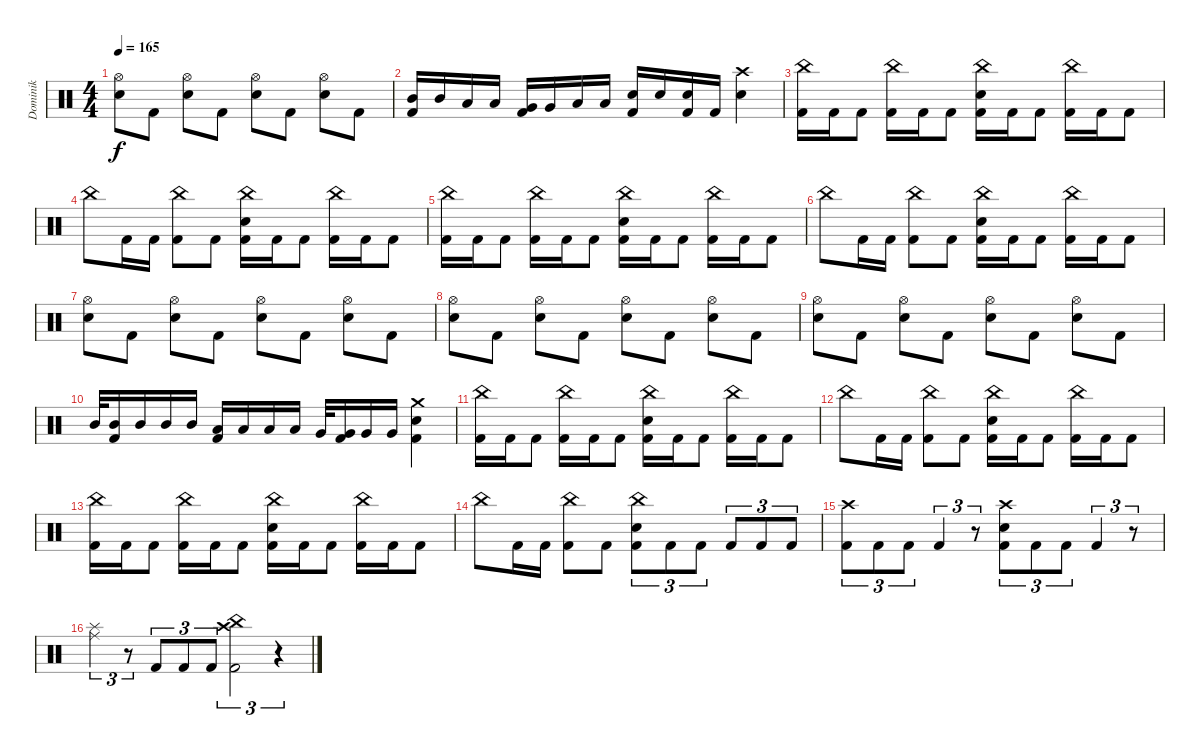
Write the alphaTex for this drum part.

\track ("Dominik" "Dominik") {instrument percussion}
\staff {score}
\articulation defaults
\ts (4 4)
\tempo 165
\clef neutral
\ks c
("Hi-Hat (open)" "Electric Snare (hit)").8{dy f} "Kick (hit) 2".8 ("Hi-Hat (open)" "Electric Snare (hit)").8 "Kick (hit) 2".8 ("Hi-Hat (open)" "Electric Snare (hit)").8 "Kick (hit) 2".8 ("Hi-Hat (open)" "Electric Snare (hit)").8 "Kick (hit) 2".8 |
("Mid Tom (hit)" "Kick (hit) 2").16 "Mid Tom (hit)".16 "Low Tom (hit)".16 "Low Tom (hit)".16 ("Very Low Tom (hit)" "Kick (hit) 2").16 "Very Low Tom (hit)".16 "Low Floor Tom (hit)".16 "Low Floor Tom (hit)".16 ("Electric Snare (hit)" "Kick (hit) 2").16 "Electric Snare (hit)".16 ("Electric Snare (hit)" "Kick (hit) 2").16 "Kick (hit) 2".16 ("Crash high (hit)" "Electric Snare (hit)").4 |
("China (hit)" "Kick (hit) 2").16 "Kick (hit) 2".16 "Kick (hit) 2".8 ("China (hit)" "Kick (hit) 2").16 "Kick (hit) 2".16 "Kick (hit) 2".8 ("China (hit)" "Electric Snare (hit)" "Kick (hit) 2").16 "Kick (hit) 2".16 "Kick (hit) 2".8 ("China (hit)" "Kick (hit) 2").16 "Kick (hit) 2".16 "Kick (hit) 2".8 |
"China (hit)".8 "Kick (hit) 2".16 "Kick (hit) 2".16 ("China (hit)" "Kick (hit) 2").8 "Kick (hit) 2".8 ("China (hit)" "Electric Snare (hit)" "Kick (hit) 2").16 "Kick (hit) 2".16 "Kick (hit) 2".8 ("China (hit)" "Kick (hit) 2").16 "Kick (hit) 2".16 "Kick (hit) 2".8 |
("China (hit)" "Kick (hit) 2").16 "Kick (hit) 2".16 "Kick (hit) 2".8 ("China (hit)" "Kick (hit) 2").16 "Kick (hit) 2".16 "Kick (hit) 2".8 ("China (hit)" "Electric Snare (hit)" "Kick (hit) 2").16 "Kick (hit) 2".16 "Kick (hit) 2".8 ("China (hit)" "Kick (hit) 2").16 "Kick (hit) 2".16 "Kick (hit) 2".8 |
"China (hit)".8 "Kick (hit) 2".16 "Kick (hit) 2".16 ("China (hit)" "Kick (hit) 2").8 "Kick (hit) 2".8 ("China (hit)" "Electric Snare (hit)" "Kick (hit) 2").16 "Kick (hit) 2".16 "Kick (hit) 2".8 ("China (hit)" "Kick (hit) 2").16 "Kick (hit) 2".16 "Kick (hit) 2".8 |
("Hi-Hat (open)" "Electric Snare (hit)").8 "Kick (hit) 2".8 ("Hi-Hat (open)" "Electric Snare (hit)").8 "Kick (hit) 2".8 ("Hi-Hat (open)" "Electric Snare (hit)").8 "Kick (hit) 2".8 ("Hi-Hat (open)" "Electric Snare (hit)").8 "Kick (hit) 2".8 |
("Hi-Hat (open)" "Electric Snare (hit)").8 "Kick (hit) 2".8 ("Hi-Hat (open)" "Electric Snare (hit)").8 "Kick (hit) 2".8 ("Hi-Hat (open)" "Electric Snare (hit)").8 "Kick (hit) 2".8 ("Hi-Hat (open)" "Electric Snare (hit)").8 "Kick (hit) 2".8 |
("Hi-Hat (open)" "Electric Snare (hit)").8 "Kick (hit) 2".8 ("Hi-Hat (open)" "Electric Snare (hit)").8 "Kick (hit) 2".8 ("Hi-Hat (open)" "Electric Snare (hit)").8 "Kick (hit) 2".8 ("Hi-Hat (open)" "Electric Snare (hit)").8 "Kick (hit) 2".8 |
"Mid Tom (hit)".32 ("Mid Tom (hit)" "Kick (hit) 2").16 "Mid Tom (hit)".16 "Mid Tom (hit)".16 "Mid Tom (hit)".16 ("Low Tom (hit)" "Kick (hit) 2").16 "Low Tom (hit)".16 "Low Tom (hit)".16 "Low Tom (hit)".16 "Very Low Tom (hit)".32 ("Very Low Tom (hit)" "Kick (hit) 2").16 "Very Low Tom (hit)".16 "Very Low Tom (hit)".16 ("Crash medium (hit)" "Electric Snare (hit)" "Kick (hit) 2").4 |
("China (hit)" "Kick (hit) 2").16 "Kick (hit) 2".16 "Kick (hit) 2".8 ("China (hit)" "Kick (hit) 2").16 "Kick (hit) 2".16 "Kick (hit) 2".8 ("China (hit)" "Electric Snare (hit)" "Kick (hit) 2").16 "Kick (hit) 2".16 "Kick (hit) 2".8 ("China (hit)" "Kick (hit) 2").16 "Kick (hit) 2".16 "Kick (hit) 2".8 |
"China (hit)".8 "Kick (hit) 2".16 "Kick (hit) 2".16 ("China (hit)" "Kick (hit) 2").8 "Kick (hit) 2".8 ("China (hit)" "Electric Snare (hit)" "Kick (hit) 2").16 "Kick (hit) 2".16 "Kick (hit) 2".8 ("China (hit)" "Kick (hit) 2").16 "Kick (hit) 2".16 "Kick (hit) 2".8 |
("China (hit)" "Kick (hit) 2").16 "Kick (hit) 2".16 "Kick (hit) 2".8 ("China (hit)" "Kick (hit) 2").16 "Kick (hit) 2".16 "Kick (hit) 2".8 ("China (hit)" "Electric Snare (hit)" "Kick (hit) 2").16 "Kick (hit) 2".16 "Kick (hit) 2".8 ("China (hit)" "Kick (hit) 2").16 "Kick (hit) 2".16 "Kick (hit) 2".8 |
"China (hit)".8 "Kick (hit) 2".16 "Kick (hit) 2".16 ("China (hit)" "Kick (hit) 2").8 "Kick (hit) 2".8 ("China (hit)" "Electric Snare (hit)" "Kick (hit) 2").8{tu (3 2)} "Kick (hit) 2".8{tu (3 2)} "Kick (hit) 2".8{tu (3 2)} "Kick (hit) 2".8{tu (3 2)} "Kick (hit) 2".8{tu (3 2)} "Kick (hit) 2".8{tu (3 2)} |
("Crash high (hit)" "Kick (hit) 2").8{tu (3 2)} "Kick (hit) 2".8{tu (3 2)} "Kick (hit) 2".8{tu (3 2)} "Kick (hit) 2".4{tu (3 2)} r.8{tu (3 2)} ("Crash high (hit)" "Electric Snare (hit)" "Kick (hit) 2").8{tu (3 2)} "Kick (hit) 2".8{tu (3 2)} "Kick (hit) 2".8{tu (3 2)} "Kick (hit) 2".4{tu (3 2)} r.8{tu (3 2)} |
("Splash (hit)" "Ride (middle)").4{tu (3 2)} r.8{tu (3 2)} "Kick (hit) 2".8{tu (3 2)} "Kick (hit) 2".8{tu (3 2)} "Kick (hit) 2".8{tu (3 2)} ("China (hit)" "Crash high (hit)" "Kick (hit) 2").2{tu (3 2)} r.4{tu (3 2)}
